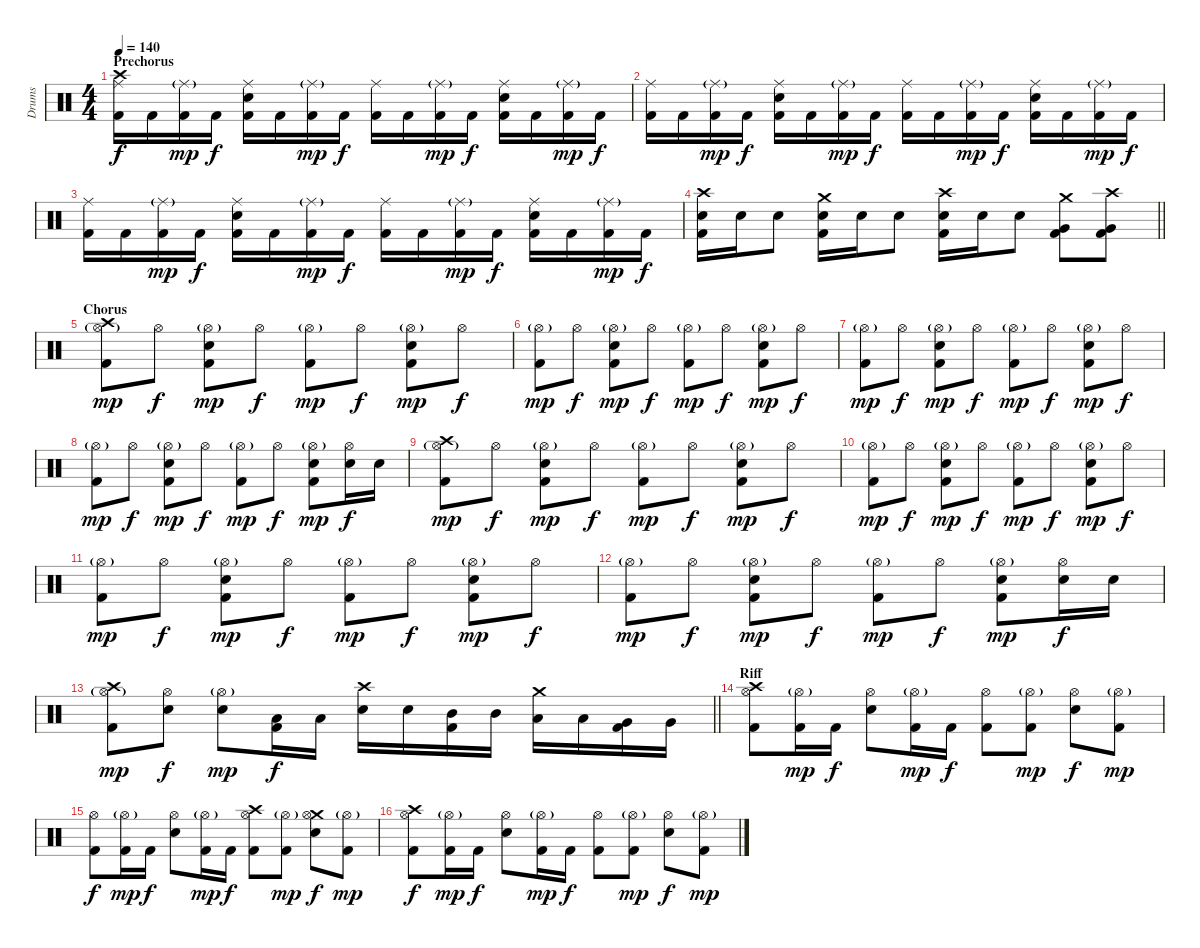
\track ("Drums" "Drums") {instrument percussion}
\staff {score}
\articulation defaults
\ts (4 4)
\section ("" "Prechorus")
\tempo 140
\clef neutral
\ks c
("Crash high (hit)" "Ride (middle)" "Kick (hit) 2").16{dy f} "Kick (hit) 2".16 ("Ride (middle)"{g} "Kick (hit) 2").16{dy mp} "Kick (hit) 2".16{dy f} ("Ride (middle)" "Snare (hit) 2" "Kick (hit) 2").16 "Kick (hit) 2".16 ("Ride (middle)"{g} "Kick (hit) 2").16{dy mp} "Kick (hit) 2".16{dy f} ("Ride (middle)" "Kick (hit) 2").16 "Kick (hit) 2".16 ("Ride (middle)"{g} "Kick (hit) 2").16{dy mp} "Kick (hit) 2".16{dy f} ("Ride (middle)" "Snare (hit) 2" "Kick (hit) 2").16 "Kick (hit) 2".16 ("Ride (middle)"{g} "Kick (hit) 2").16{dy mp} "Kick (hit) 2".16{dy f} |
("Ride (middle)" "Kick (hit) 2").16 "Kick (hit) 2".16 ("Ride (middle)"{g} "Kick (hit) 2").16{dy mp} "Kick (hit) 2".16{dy f} ("Ride (middle)" "Snare (hit) 2" "Kick (hit) 2").16 "Kick (hit) 2".16 ("Ride (middle)"{g} "Kick (hit) 2").16{dy mp} "Kick (hit) 2".16{dy f} ("Ride (middle)" "Kick (hit) 2").16 "Kick (hit) 2".16 ("Ride (middle)"{g} "Kick (hit) 2").16{dy mp} "Kick (hit) 2".16{dy f} ("Ride (middle)" "Snare (hit) 2" "Kick (hit) 2").16 "Kick (hit) 2".16 ("Ride (middle)"{g} "Kick (hit) 2").16{dy mp} "Kick (hit) 2".16{dy f} |
("Ride (middle)" "Kick (hit) 2").16 "Kick (hit) 2".16 ("Ride (middle)"{g} "Kick (hit) 2").16{dy mp} "Kick (hit) 2".16{dy f} ("Ride (middle)" "Snare (hit) 2" "Kick (hit) 2").16 "Kick (hit) 2".16 ("Ride (middle)"{g} "Kick (hit) 2").16{dy mp} "Kick (hit) 2".16{dy f} ("Ride (middle)" "Kick (hit) 2").16 "Kick (hit) 2".16 ("Ride (middle)"{g} "Kick (hit) 2").16{dy mp} "Kick (hit) 2".16{dy f} ("Ride (middle)" "Snare (hit) 2" "Kick (hit) 2").16 "Kick (hit) 2".16 ("Ride (middle)"{g} "Kick (hit) 2").16{dy mp} "Kick (hit) 2".16{dy f} |
\barLineRight lightlight
("Crash high (hit)" "Snare (hit) 2" "Kick (hit) 2").16 "Snare (hit) 2".16 "Snare (hit) 2".8 ("Crash medium (hit)" "Snare (hit) 2" "Kick (hit) 2").16 "Snare (hit) 2".16 "Snare (hit) 2".8 ("Crash high (hit)" "Snare (hit) 2" "Kick (hit) 2").16 "Snare (hit) 2".16 "Snare (hit) 2".8 ("Crash medium (hit)" "Very Low Tom (hit)" "Kick (hit) 2").8 ("Crash high (hit)" "Very Low Tom (hit)" "Kick (hit) 2").8 |
\section ("" "Chorus")
("Crash high (hit)" "Hi-Hat (open)"{g} "Kick (hit) 2").8{dy mp} "Hi-Hat (open)".8{dy f} ("Hi-Hat (open)"{g} "Snare (hit) 2" "Kick (hit) 2").8{dy mp} "Hi-Hat (open)".8{dy f} ("Hi-Hat (open)"{g} "Kick (hit) 2").8{dy mp} "Hi-Hat (open)".8{dy f} ("Hi-Hat (open)"{g} "Snare (hit) 2" "Kick (hit) 2").8{dy mp} "Hi-Hat (open)".8{dy f} |
("Hi-Hat (open)"{g} "Kick (hit) 2").8{dy mp} "Hi-Hat (open)".8{dy f} ("Hi-Hat (open)"{g} "Snare (hit) 2" "Kick (hit) 2").8{dy mp} "Hi-Hat (open)".8{dy f} ("Hi-Hat (open)"{g} "Kick (hit) 2").8{dy mp} "Hi-Hat (open)".8{dy f} ("Hi-Hat (open)"{g} "Snare (hit) 2" "Kick (hit) 2").8{dy mp} "Hi-Hat (open)".8{dy f} |
("Hi-Hat (open)"{g} "Kick (hit) 2").8{dy mp} "Hi-Hat (open)".8{dy f} ("Hi-Hat (open)"{g} "Snare (hit) 2" "Kick (hit) 2").8{dy mp} "Hi-Hat (open)".8{dy f} ("Hi-Hat (open)"{g} "Kick (hit) 2").8{dy mp} "Hi-Hat (open)".8{dy f} ("Hi-Hat (open)"{g} "Snare (hit) 2" "Kick (hit) 2").8{dy mp} "Hi-Hat (open)".8{dy f} |
("Hi-Hat (open)"{g} "Kick (hit) 2").8{dy mp} "Hi-Hat (open)".8{dy f} ("Hi-Hat (open)"{g} "Snare (hit) 2" "Kick (hit) 2").8{dy mp} "Hi-Hat (open)".8{dy f} ("Hi-Hat (open)"{g} "Kick (hit) 2").8{dy mp} "Hi-Hat (open)".8{dy f} ("Hi-Hat (open)"{g} "Snare (hit) 2" "Kick (hit) 2").8{dy mp} ("Hi-Hat (open)" "Snare (hit) 2").16{dy f} "Snare (hit) 2".16 |
("Crash high (hit)" "Hi-Hat (open)"{g} "Kick (hit) 2").8{dy mp} "Hi-Hat (open)".8{dy f} ("Hi-Hat (open)"{g} "Snare (hit) 2" "Kick (hit) 2").8{dy mp} "Hi-Hat (open)".8{dy f} ("Hi-Hat (open)"{g} "Kick (hit) 2").8{dy mp} "Hi-Hat (open)".8{dy f} ("Hi-Hat (open)"{g} "Snare (hit) 2" "Kick (hit) 2").8{dy mp} "Hi-Hat (open)".8{dy f} |
("Hi-Hat (open)"{g} "Kick (hit) 2").8{dy mp} "Hi-Hat (open)".8{dy f} ("Hi-Hat (open)"{g} "Snare (hit) 2" "Kick (hit) 2").8{dy mp} "Hi-Hat (open)".8{dy f} ("Hi-Hat (open)"{g} "Kick (hit) 2").8{dy mp} "Hi-Hat (open)".8{dy f} ("Hi-Hat (open)"{g} "Snare (hit) 2" "Kick (hit) 2").8{dy mp} "Hi-Hat (open)".8{dy f} |
("Hi-Hat (open)"{g} "Kick (hit) 2").8{dy mp} "Hi-Hat (open)".8{dy f} ("Hi-Hat (open)"{g} "Snare (hit) 2" "Kick (hit) 2").8{dy mp} "Hi-Hat (open)".8{dy f} ("Hi-Hat (open)"{g} "Kick (hit) 2").8{dy mp} "Hi-Hat (open)".8{dy f} ("Hi-Hat (open)"{g} "Snare (hit) 2" "Kick (hit) 2").8{dy mp} "Hi-Hat (open)".8{dy f} |
("Hi-Hat (open)"{g} "Kick (hit) 2").8{dy mp} "Hi-Hat (open)".8{dy f} ("Hi-Hat (open)"{g} "Snare (hit) 2" "Kick (hit) 2").8{dy mp} "Hi-Hat (open)".8{dy f} ("Hi-Hat (open)"{g} "Kick (hit) 2").8{dy mp} "Hi-Hat (open)".8{dy f} ("Hi-Hat (open)"{g} "Snare (hit) 2" "Kick (hit) 2").8{dy mp} ("Hi-Hat (open)" "Snare (hit) 2").16{dy f} "Snare (hit) 2".16 |
\barLineRight lightlight
("Crash high (hit)" "Hi-Hat (open)"{g} "Kick (hit) 2").8{dy mp} ("Hi-Hat (open)" "Snare (hit) 2").8{dy f} ("Hi-Hat (open)"{g} "Snare (hit) 2").8{dy mp} ("Low Tom (hit)" "Kick (hit) 2").16{dy f} "Low Tom (hit)".16 ("Crash high (hit)" "Snare (hit) 2").16 "Snare (hit) 2".16 ("Mid Tom (hit)" "Kick (hit) 2").16 "Mid Tom (hit)".16 ("Crash medium (hit)" "Low Tom (hit)").16 "Low Tom (hit)".16 ("Very Low Tom (hit)" "Kick (hit) 2").16 "Very Low Tom (hit)".16 |
\section ("" "Riff")
("Crash high (hit)" "Hi-Hat (open)" "Kick (hit) 2").8 ("Hi-Hat (open)"{g} "Kick (hit) 2").16{dy mp} "Kick (hit) 2".16{dy f} ("Hi-Hat (open)" "Snare (hit) 2").8 ("Hi-Hat (open)"{g} "Kick (hit) 2").16{dy mp} "Kick (hit) 2".16{dy f} ("Hi-Hat (open)" "Kick (hit) 2").8 ("Hi-Hat (open)"{g} "Kick (hit) 2").8{dy mp} ("Hi-Hat (open)" "Snare (hit) 2").8{dy f} ("Hi-Hat (open)"{g} "Kick (hit) 2").8{dy mp} |
("Hi-Hat (open)" "Kick (hit) 2").8{dy f} ("Hi-Hat (open)"{g} "Kick (hit) 2").16{dy mp} "Kick (hit) 2".16{dy f} ("Hi-Hat (open)" "Snare (hit) 2").8 ("Hi-Hat (open)"{g} "Kick (hit) 2").16{dy mp} "Kick (hit) 2".16{dy f} ("Crash high (hit)" "Hi-Hat (open)" "Kick (hit) 2").8 ("Hi-Hat (open)"{g} "Kick (hit) 2").8{dy mp} ("Crash medium (hit)" "Hi-Hat (open)" "Snare (hit) 2").8{dy f} ("Hi-Hat (open)"{g} "Kick (hit) 2").8{dy mp} |
("Crash high (hit)" "Hi-Hat (open)" "Kick (hit) 2").8{dy f} ("Hi-Hat (open)"{g} "Kick (hit) 2").16{dy mp} "Kick (hit) 2".16{dy f} ("Hi-Hat (open)" "Snare (hit) 2").8 ("Hi-Hat (open)"{g} "Kick (hit) 2").16{dy mp} "Kick (hit) 2".16{dy f} ("Hi-Hat (open)" "Kick (hit) 2").8 ("Hi-Hat (open)"{g} "Kick (hit) 2").8{dy mp} ("Hi-Hat (open)" "Snare (hit) 2").8{dy f} ("Hi-Hat (open)"{g} "Kick (hit) 2").8{dy mp}
